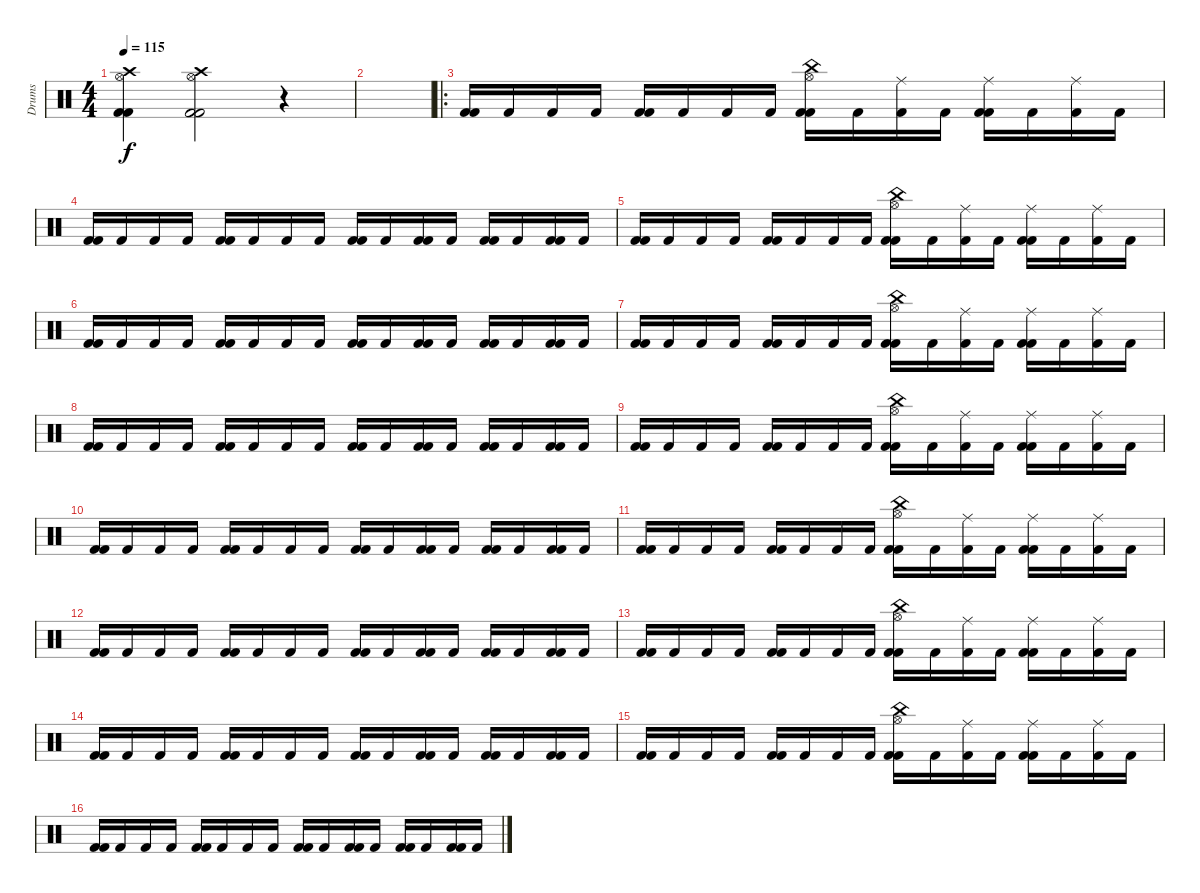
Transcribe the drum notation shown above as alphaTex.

\track ("Drums" "Drums") {instrument percussion}
\staff {score}
\articulation defaults
\ts (4 4)
\tempo 115
\clef neutral
\ks c
("Kick (hit) 2" "Crash high (hit)" "Kick (hit) 2" "Hi-Hat (open)").4{dy f} ("Kick (hit) 2" "Crash high (hit)" "Kick (hit) 2" "Hi-Hat (open)").2 r.4 |
|
\ro
("Kick (hit) 2" "Kick (hit) 2").16 "Kick (hit) 2".16 "Kick (hit) 2".16 "Kick (hit) 2".16 ("Kick (hit) 2" "Kick (hit) 2").16 "Kick (hit) 2".16 "Kick (hit) 2".16 "Kick (hit) 2".16 ("China (hit)" "Kick (hit) 2" "Kick (hit) 2" "Hi-Hat (open)").16 "Kick (hit) 2".16 ("Ride (middle)" "Kick (hit) 2").16 "Kick (hit) 2".16 ("Ride (middle)" "Kick (hit) 2" "Kick (hit) 2").16 "Kick (hit) 2".16 ("Ride (middle)" "Kick (hit) 2").16 "Kick (hit) 2".16 |
("Kick (hit) 2" "Kick (hit) 2").16 "Kick (hit) 2".16 "Kick (hit) 2".16 "Kick (hit) 2".16 ("Kick (hit) 2" "Kick (hit) 2").16 "Kick (hit) 2".16 "Kick (hit) 2".16 "Kick (hit) 2".16 ("Kick (hit) 2" "Kick (hit) 2").16 "Kick (hit) 2".16 ("Kick (hit) 2" "Kick (hit) 2").16 "Kick (hit) 2".16 ("Kick (hit) 2" "Kick (hit) 2").16 "Kick (hit) 2".16 ("Kick (hit) 2" "Kick (hit) 2").16 "Kick (hit) 2".16 |
("Kick (hit) 2" "Kick (hit) 2").16 "Kick (hit) 2".16 "Kick (hit) 2".16 "Kick (hit) 2".16 ("Kick (hit) 2" "Kick (hit) 2").16 "Kick (hit) 2".16 "Kick (hit) 2".16 "Kick (hit) 2".16 ("China (hit)" "Kick (hit) 2" "Kick (hit) 2" "Hi-Hat (open)").16 "Kick (hit) 2".16 ("Ride (middle)" "Kick (hit) 2").16 "Kick (hit) 2".16 ("Ride (middle)" "Kick (hit) 2" "Kick (hit) 2").16 "Kick (hit) 2".16 ("Ride (middle)" "Kick (hit) 2").16 "Kick (hit) 2".16 |
("Kick (hit) 2" "Kick (hit) 2").16 "Kick (hit) 2".16 "Kick (hit) 2".16 "Kick (hit) 2".16 ("Kick (hit) 2" "Kick (hit) 2").16 "Kick (hit) 2".16 "Kick (hit) 2".16 "Kick (hit) 2".16 ("Kick (hit) 2" "Kick (hit) 2").16 "Kick (hit) 2".16 ("Kick (hit) 2" "Kick (hit) 2").16 "Kick (hit) 2".16 ("Kick (hit) 2" "Kick (hit) 2").16 "Kick (hit) 2".16 ("Kick (hit) 2" "Kick (hit) 2").16 "Kick (hit) 2".16 |
("Kick (hit) 2" "Kick (hit) 2").16 "Kick (hit) 2".16 "Kick (hit) 2".16 "Kick (hit) 2".16 ("Kick (hit) 2" "Kick (hit) 2").16 "Kick (hit) 2".16 "Kick (hit) 2".16 "Kick (hit) 2".16 ("China (hit)" "Kick (hit) 2" "Kick (hit) 2" "Hi-Hat (open)").16 "Kick (hit) 2".16 ("Ride (middle)" "Kick (hit) 2").16 "Kick (hit) 2".16 ("Ride (middle)" "Kick (hit) 2" "Kick (hit) 2").16 "Kick (hit) 2".16 ("Ride (middle)" "Kick (hit) 2").16 "Kick (hit) 2".16 |
("Kick (hit) 2" "Kick (hit) 2").16 "Kick (hit) 2".16 "Kick (hit) 2".16 "Kick (hit) 2".16 ("Kick (hit) 2" "Kick (hit) 2").16 "Kick (hit) 2".16 "Kick (hit) 2".16 "Kick (hit) 2".16 ("Kick (hit) 2" "Kick (hit) 2").16 "Kick (hit) 2".16 ("Kick (hit) 2" "Kick (hit) 2").16 "Kick (hit) 2".16 ("Kick (hit) 2" "Kick (hit) 2").16 "Kick (hit) 2".16 ("Kick (hit) 2" "Kick (hit) 2").16 "Kick (hit) 2".16 |
("Kick (hit) 2" "Kick (hit) 2").16 "Kick (hit) 2".16 "Kick (hit) 2".16 "Kick (hit) 2".16 ("Kick (hit) 2" "Kick (hit) 2").16 "Kick (hit) 2".16 "Kick (hit) 2".16 "Kick (hit) 2".16 ("China (hit)" "Kick (hit) 2" "Kick (hit) 2" "Hi-Hat (open)").16 "Kick (hit) 2".16 ("Ride (middle)" "Kick (hit) 2").16 "Kick (hit) 2".16 ("Ride (middle)" "Kick (hit) 2" "Kick (hit) 2").16 "Kick (hit) 2".16 ("Ride (middle)" "Kick (hit) 2").16 "Kick (hit) 2".16 |
("Kick (hit) 2" "Kick (hit) 2").16 "Kick (hit) 2".16 "Kick (hit) 2".16 "Kick (hit) 2".16 ("Kick (hit) 2" "Kick (hit) 2").16 "Kick (hit) 2".16 "Kick (hit) 2".16 "Kick (hit) 2".16 ("Kick (hit) 2" "Kick (hit) 2").16 "Kick (hit) 2".16 ("Kick (hit) 2" "Kick (hit) 2").16 "Kick (hit) 2".16 ("Kick (hit) 2" "Kick (hit) 2").16 "Kick (hit) 2".16 ("Kick (hit) 2" "Kick (hit) 2").16 "Kick (hit) 2".16 |
("Kick (hit) 2" "Kick (hit) 2").16 "Kick (hit) 2".16 "Kick (hit) 2".16 "Kick (hit) 2".16 ("Kick (hit) 2" "Kick (hit) 2").16 "Kick (hit) 2".16 "Kick (hit) 2".16 "Kick (hit) 2".16 ("China (hit)" "Kick (hit) 2" "Kick (hit) 2" "Hi-Hat (open)").16 "Kick (hit) 2".16 ("Ride (middle)" "Kick (hit) 2").16 "Kick (hit) 2".16 ("Ride (middle)" "Kick (hit) 2" "Kick (hit) 2").16 "Kick (hit) 2".16 ("Ride (middle)" "Kick (hit) 2").16 "Kick (hit) 2".16 |
("Kick (hit) 2" "Kick (hit) 2").16 "Kick (hit) 2".16 "Kick (hit) 2".16 "Kick (hit) 2".16 ("Kick (hit) 2" "Kick (hit) 2").16 "Kick (hit) 2".16 "Kick (hit) 2".16 "Kick (hit) 2".16 ("Kick (hit) 2" "Kick (hit) 2").16 "Kick (hit) 2".16 ("Kick (hit) 2" "Kick (hit) 2").16 "Kick (hit) 2".16 ("Kick (hit) 2" "Kick (hit) 2").16 "Kick (hit) 2".16 ("Kick (hit) 2" "Kick (hit) 2").16 "Kick (hit) 2".16 |
("Kick (hit) 2" "Kick (hit) 2").16 "Kick (hit) 2".16 "Kick (hit) 2".16 "Kick (hit) 2".16 ("Kick (hit) 2" "Kick (hit) 2").16 "Kick (hit) 2".16 "Kick (hit) 2".16 "Kick (hit) 2".16 ("China (hit)" "Kick (hit) 2" "Kick (hit) 2" "Hi-Hat (open)").16 "Kick (hit) 2".16 ("Ride (middle)" "Kick (hit) 2").16 "Kick (hit) 2".16 ("Ride (middle)" "Kick (hit) 2" "Kick (hit) 2").16 "Kick (hit) 2".16 ("Ride (middle)" "Kick (hit) 2").16 "Kick (hit) 2".16 |
("Kick (hit) 2" "Kick (hit) 2").16 "Kick (hit) 2".16 "Kick (hit) 2".16 "Kick (hit) 2".16 ("Kick (hit) 2" "Kick (hit) 2").16 "Kick (hit) 2".16 "Kick (hit) 2".16 "Kick (hit) 2".16 ("Kick (hit) 2" "Kick (hit) 2").16 "Kick (hit) 2".16 ("Kick (hit) 2" "Kick (hit) 2").16 "Kick (hit) 2".16 ("Kick (hit) 2" "Kick (hit) 2").16 "Kick (hit) 2".16 ("Kick (hit) 2" "Kick (hit) 2").16 "Kick (hit) 2".16 |
("Kick (hit) 2" "Kick (hit) 2").16 "Kick (hit) 2".16 "Kick (hit) 2".16 "Kick (hit) 2".16 ("Kick (hit) 2" "Kick (hit) 2").16 "Kick (hit) 2".16 "Kick (hit) 2".16 "Kick (hit) 2".16 ("China (hit)" "Kick (hit) 2" "Kick (hit) 2" "Hi-Hat (open)").16 "Kick (hit) 2".16 ("Ride (middle)" "Kick (hit) 2").16 "Kick (hit) 2".16 ("Ride (middle)" "Kick (hit) 2" "Kick (hit) 2").16 "Kick (hit) 2".16 ("Ride (middle)" "Kick (hit) 2").16 "Kick (hit) 2".16 |
("Kick (hit) 2" "Kick (hit) 2").16 "Kick (hit) 2".16 "Kick (hit) 2".16 "Kick (hit) 2".16 ("Kick (hit) 2" "Kick (hit) 2").16 "Kick (hit) 2".16 "Kick (hit) 2".16 "Kick (hit) 2".16 ("Kick (hit) 2" "Kick (hit) 2").16 "Kick (hit) 2".16 ("Kick (hit) 2" "Kick (hit) 2").16 "Kick (hit) 2".16 ("Kick (hit) 2" "Kick (hit) 2").16 "Kick (hit) 2".16 ("Kick (hit) 2" "Kick (hit) 2").16 "Kick (hit) 2".16
